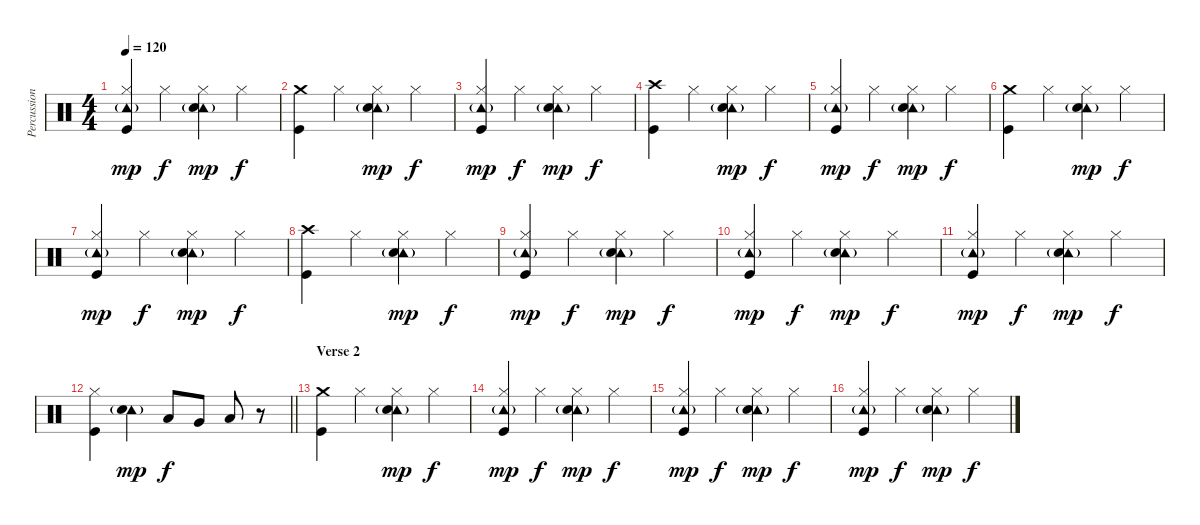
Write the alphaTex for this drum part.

\track ("Percussioni" "Percussion") {instrument percussion}
\staff {score}
\articulation defaults
\ts (4 4)
\tempo 120
\clef neutral
\ks c
("Tambourine (hit)"{g} "Hi-Hat (closed)" "Kick (hit)").4{dy mp} "Hi-Hat (closed)".4{dy f} ("Tambourine (hit)"{g} "Hi-Hat (closed)" "Snare (hit) 2").4{dy mp} "Hi-Hat (closed)".4{dy f} |
("Crash medium (hit)" "Kick (hit)").4 "Hi-Hat (closed)".4 ("Tambourine (hit)"{g} "Hi-Hat (closed)" "Snare (hit) 2").4{dy mp} "Hi-Hat (closed)".4{dy f} |
("Tambourine (hit)"{g} "Hi-Hat (closed)" "Kick (hit)").4{dy mp} "Hi-Hat (closed)".4{dy f} ("Tambourine (hit)"{g} "Hi-Hat (closed)" "Snare (hit) 2").4{dy mp} "Hi-Hat (closed)".4{dy f} |
("Crash high (hit)" "Kick (hit)").4 "Hi-Hat (closed)".4 ("Tambourine (hit)"{g} "Hi-Hat (closed)" "Snare (hit) 2").4{dy mp} "Hi-Hat (closed)".4{dy f} |
("Tambourine (hit)"{g} "Hi-Hat (closed)" "Kick (hit)").4{dy mp} "Hi-Hat (closed)".4{dy f} ("Tambourine (hit)"{g} "Hi-Hat (closed)" "Snare (hit) 2").4{dy mp} "Hi-Hat (closed)".4{dy f} |
("Crash medium (hit)" "Kick (hit)").4 "Hi-Hat (closed)".4 ("Tambourine (hit)"{g} "Hi-Hat (closed)" "Snare (hit) 2").4{dy mp} "Hi-Hat (closed)".4{dy f} |
("Tambourine (hit)"{g} "Hi-Hat (closed)" "Kick (hit)").4{dy mp} "Hi-Hat (closed)".4{dy f} ("Tambourine (hit)"{g} "Hi-Hat (closed)" "Snare (hit) 2").4{dy mp} "Hi-Hat (closed)".4{dy f} |
("Crash high (hit)" "Kick (hit)").4 "Hi-Hat (closed)".4 ("Tambourine (hit)"{g} "Hi-Hat (closed)" "Snare (hit) 2").4{dy mp} "Hi-Hat (closed)".4{dy f} |
("Tambourine (hit)"{g} "Hi-Hat (closed)" "Kick (hit)").4{dy mp} "Hi-Hat (closed)".4{dy f} ("Tambourine (hit)"{g} "Hi-Hat (closed)" "Snare (hit) 2").4{dy mp} "Hi-Hat (closed)".4{dy f} |
("Tambourine (hit)"{g} "Hi-Hat (closed)" "Kick (hit)").4{dy mp} "Hi-Hat (closed)".4{dy f} ("Tambourine (hit)"{g} "Hi-Hat (closed)" "Snare (hit) 2").4{dy mp} "Hi-Hat (closed)".4{dy f} |
("Tambourine (hit)"{g} "Hi-Hat (closed)" "Kick (hit)").4{dy mp} "Hi-Hat (closed)".4{dy f} ("Tambourine (hit)"{g} "Hi-Hat (closed)" "Snare (hit) 2").4{dy mp} "Hi-Hat (closed)".4{dy f} |
\barLineRight lightlight
("Hi-Hat (closed)" "Kick (hit)").4 ("Tambourine (hit)"{g} "Snare (hit) 2").4{dy mp} "Low Tom (hit)".8{dy f} "Very Low Tom (hit)".8 "Low Floor Tom (hit)".8 r.8 |
\section ("" "Verse 2")
("Crash medium (hit)" "Kick (hit)").4 "Hi-Hat (closed)".4 ("Tambourine (hit)"{g} "Hi-Hat (closed)" "Snare (hit) 2").4{dy mp} "Hi-Hat (closed)".4{dy f} |
("Tambourine (hit)"{g} "Hi-Hat (closed)" "Kick (hit)").4{dy mp} "Hi-Hat (closed)".4{dy f} ("Tambourine (hit)"{g} "Hi-Hat (closed)" "Snare (hit) 2").4{dy mp} "Hi-Hat (closed)".4{dy f} |
("Tambourine (hit)"{g} "Hi-Hat (closed)" "Kick (hit)").4{dy mp} "Hi-Hat (closed)".4{dy f} ("Tambourine (hit)"{g} "Hi-Hat (closed)" "Snare (hit) 2").4{dy mp} "Hi-Hat (closed)".4{dy f} |
("Tambourine (hit)"{g} "Hi-Hat (closed)" "Kick (hit)").4{dy mp} "Hi-Hat (closed)".4{dy f} ("Tambourine (hit)"{g} "Hi-Hat (closed)" "Snare (hit) 2").4{dy mp} "Hi-Hat (closed)".4{dy f}
